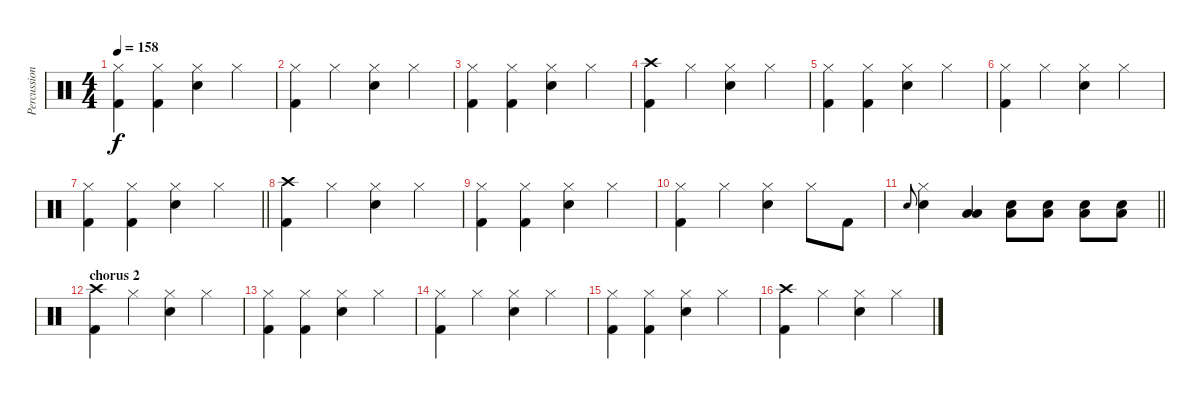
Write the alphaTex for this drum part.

\track ("Percussion" "Percussion") {instrument percussion}
\staff {score}
\articulation defaults
\ts (4 4)
\tempo 158
\clef neutral
\ks c
("Hi-Hat (closed)" "Kick (hit) 2").4{dy f} ("Hi-Hat (closed)" "Kick (hit) 2").4 ("Hi-Hat (closed)" "Snare (hit) 2").4 "Hi-Hat (closed)".4 |
("Hi-Hat (closed)" "Kick (hit) 2").4 "Hi-Hat (closed)".4 ("Hi-Hat (closed)" "Snare (hit) 2").4 "Hi-Hat (closed)".4 |
("Hi-Hat (closed)" "Kick (hit) 2").4 ("Hi-Hat (closed)" "Kick (hit) 2").4 ("Hi-Hat (closed)" "Snare (hit) 2").4 "Hi-Hat (closed)".4 |
("Crash high (hit)" "Kick (hit) 2").4 "Hi-Hat (closed)".4 ("Hi-Hat (closed)" "Snare (hit) 2").4 "Hi-Hat (closed)".4 |
("Hi-Hat (closed)" "Kick (hit) 2").4 ("Hi-Hat (closed)" "Kick (hit) 2").4 ("Hi-Hat (closed)" "Snare (hit) 2").4 "Hi-Hat (closed)".4 |
("Hi-Hat (closed)" "Kick (hit) 2").4 "Hi-Hat (closed)".4 ("Hi-Hat (closed)" "Snare (hit) 2").4 "Hi-Hat (closed)".4 |
\barLineRight lightlight
("Hi-Hat (closed)" "Kick (hit) 2").4 ("Hi-Hat (closed)" "Kick (hit) 2").4 ("Hi-Hat (closed)" "Snare (hit) 2").4 "Hi-Hat (closed)".4 |
("Crash high (hit)" "Kick (hit) 2").4 "Hi-Hat (closed)".4 ("Hi-Hat (closed)" "Snare (hit) 2").4 "Hi-Hat (closed)".4 |
("Hi-Hat (closed)" "Kick (hit) 2").4 ("Hi-Hat (closed)" "Kick (hit) 2").4 ("Hi-Hat (closed)" "Snare (hit) 2").4 "Hi-Hat (closed)".4 |
("Hi-Hat (closed)" "Kick (hit) 2").4 "Hi-Hat (closed)".4 ("Hi-Hat (closed)" "Snare (hit) 2").4 "Hi-Hat (closed)".8 "Kick (hit) 2".8 |
\barLineRight lightlight "Snare (hit) 2".8{gr onbeat}
("Hi-Hat (closed)" "Snare (hit) 2").4 ("Low Floor Tom (hit)" "Low Tom (hit)").4 ("Low Floor Tom (hit)" "Snare (hit) 2").8 ("Low Floor Tom (hit)" "Snare (hit) 2").8 ("Low Floor Tom (hit)" "Snare (hit) 2").8 ("Low Floor Tom (hit)" "Snare (hit) 2").8 |
\section ("" "chorus 2")
("Crash high (hit)" "Kick (hit) 2").4 "Hi-Hat (closed)".4 ("Hi-Hat (closed)" "Snare (hit) 2").4 "Hi-Hat (closed)".4 |
("Hi-Hat (closed)" "Kick (hit) 2").4 ("Hi-Hat (closed)" "Kick (hit) 2").4 ("Hi-Hat (closed)" "Snare (hit) 2").4 "Hi-Hat (closed)".4 |
("Hi-Hat (closed)" "Kick (hit) 2").4 "Hi-Hat (closed)".4 ("Hi-Hat (closed)" "Snare (hit) 2").4 "Hi-Hat (closed)".4 |
("Hi-Hat (closed)" "Kick (hit) 2").4 ("Hi-Hat (closed)" "Kick (hit) 2").4 ("Hi-Hat (closed)" "Snare (hit) 2").4 "Hi-Hat (closed)".4 |
("Crash high (hit)" "Kick (hit) 2").4 "Hi-Hat (closed)".4 ("Hi-Hat (closed)" "Snare (hit) 2").4 "Hi-Hat (closed)".4
